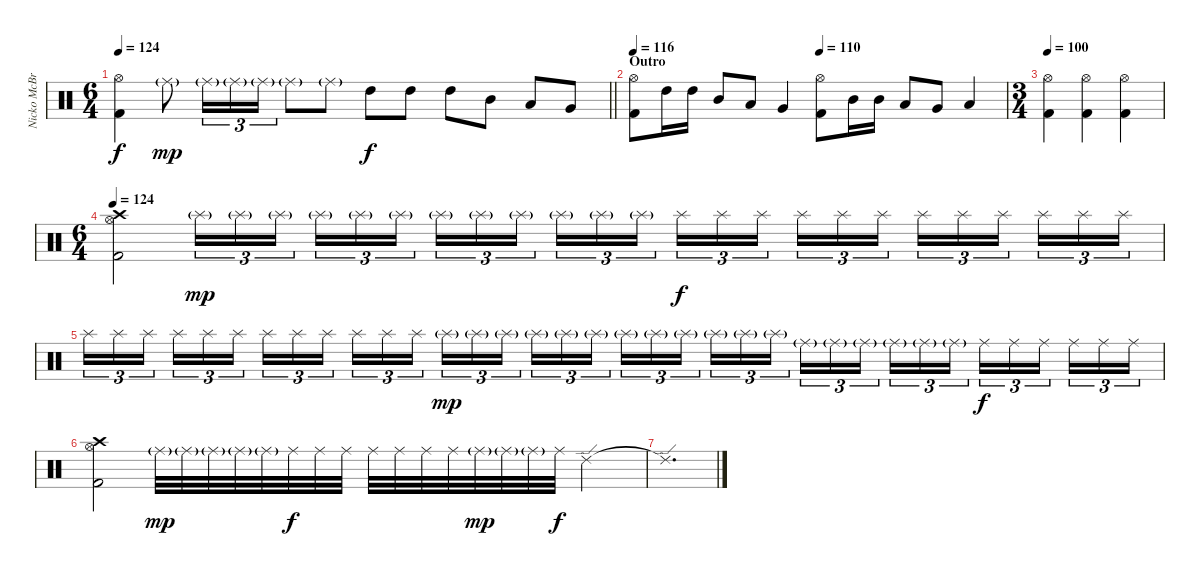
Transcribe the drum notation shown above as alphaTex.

\track ("Nicko McBrain" "Nicko McBr") {instrument percussion}
\staff {score}
\articulation defaults
\ts (6 4)
\tempo 124
\clef neutral
\barLineRight lightlight
\ks c
("Kick (hit) 2" "Hi-Hat (open)").4{dy f} "Ride (middle)"{g}.8{dy mp} "Ride (middle)"{g}.16{tu (3 2)} "Ride (middle)"{g}.16{tu (3 2)} "Ride (middle)"{g}.16{tu (3 2)} "Ride (middle)"{g}.8 "Ride (middle)"{g}.8 "High Tom (hit)".8{dy f} "High Tom (hit)".8 "High Tom (hit)".8 "Mid Tom (hit)".8 "Low Tom (hit)".8 "Very Low Tom (hit)".8 |
\section ("" "Outro")
\tempo 116
\tempo (110 0.5)
("Kick (hit) 2" "Hi-Hat (open)").8 "High Tom (hit)".16 "High Tom (hit)".16 "Mid Tom (hit)".8 "Low Tom (hit)".8 "Very Low Tom (hit)".4 ("Kick (hit) 2" "Hi-Hat (open)").8 "Mid Tom (hit)".16 "Mid Tom (hit)".16 "Low Tom (hit)".8 "Very Low Tom (hit)".8 "Low Floor Tom (hit)".4 |
\ts (3 4)
\tempo 100
("Kick (hit) 2" "Hi-Hat (open)").4 ("Kick (hit) 2" "Hi-Hat (open)").4 ("Kick (hit) 2" "Hi-Hat (open)").4 |
\ts (6 4)
\tempo 124
("Kick (hit) 2" "Hi-Hat (open)" "Crash high (hit)").2 "Splash (hit)"{g}.16{tu (3 2) dy mp} "Splash (hit)"{g}.16{tu (3 2)} "Splash (hit)"{g}.16{tu (3 2) beam splitsecondary} "Splash (hit)"{g}.16{tu (3 2)} "Splash (hit)"{g}.16{tu (3 2)} "Splash (hit)"{g}.16{tu (3 2)} "Splash (hit)"{g}.16{tu (3 2)} "Splash (hit)"{g}.16{tu (3 2)} "Splash (hit)"{g}.16{tu (3 2) beam splitsecondary} "Splash (hit)"{g}.16{tu (3 2)} "Splash (hit)"{g}.16{tu (3 2)} "Splash (hit)"{g}.16{tu (3 2) beam splitsecondary} "Splash (hit)".16{tu (3 2) dy f} "Splash (hit)".16{tu (3 2)} "Splash (hit)".16{tu (3 2) beam splitsecondary} "Splash (hit)".16{tu (3 2)} "Splash (hit)".16{tu (3 2)} "Splash (hit)".16{tu (3 2) beam splitsecondary} "Splash (hit)".16{tu (3 2)} "Splash (hit)".16{tu (3 2)} "Splash (hit)".16{tu (3 2) beam splitsecondary} "Splash (hit)".16{tu (3 2)} "Splash (hit)".16{tu (3 2)} "Splash (hit)".16{tu (3 2)} |
"Splash (hit)".16{tu (3 2)} "Splash (hit)".16{tu (3 2)} "Splash (hit)".16{tu (3 2) beam splitsecondary} "Splash (hit)".16{tu (3 2)} "Splash (hit)".16{tu (3 2)} "Splash (hit)".16{tu (3 2) beam splitsecondary} "Splash (hit)".16{tu (3 2)} "Splash (hit)".16{tu (3 2)} "Splash (hit)".16{tu (3 2) beam splitsecondary} "Splash (hit)".16{tu (3 2)} "Splash (hit)".16{tu (3 2)} "Splash (hit)".16{tu (3 2) beam splitsecondary} "Splash (hit)"{g}.16{tu (3 2) dy mp} "Splash (hit)"{g}.16{tu (3 2)} "Splash (hit)"{g}.16{tu (3 2) beam splitsecondary} "Splash (hit)"{g}.16{tu (3 2)} "Splash (hit)"{g}.16{tu (3 2)} "Splash (hit)"{g}.16{tu (3 2)} "Splash (hit)"{g}.16{tu (3 2)} "Splash (hit)"{g}.16{tu (3 2)} "Splash (hit)"{g}.16{tu (3 2) beam splitsecondary} "Splash (hit)"{g}.16{tu (3 2)} "Splash (hit)"{g}.16{tu (3 2)} "Splash (hit)"{g}.16{tu (3 2) beam splitsecondary} "Ride (middle)"{g}.16{tu (3 2)} "Ride (middle)"{g}.16{tu (3 2)} "Ride (middle)"{g}.16{tu (3 2) beam splitsecondary} "Ride (middle)"{g}.16{tu (3 2)} "Ride (middle)"{g}.16{tu (3 2)} "Ride (middle)"{g}.16{tu (3 2) beam splitsecondary} "Ride (middle)".16{tu (3 2) dy f} "Ride (middle)".16{tu (3 2)} "Ride (middle)".16{tu (3 2) beam splitsecondary} "Ride (middle)".16{tu (3 2)} "Ride (middle)".16{tu (3 2)} "Ride (middle)".16{tu (3 2)} |
("Kick (hit) 2" "Hi-Hat (open)" "Crash high (hit)").2 "Ride (middle)"{g}.32{dy mp} "Ride (middle)"{g}.32 "Ride (middle)"{g}.32 "Ride (middle)"{g}.32 "Ride (middle)"{g}.32 "Ride (middle)".32{dy f} "Ride (middle)".32 "Ride (middle)".32 "Ride (middle)".32 "Ride (middle)".32 "Ride (middle)".32 "Ride (middle)".32 "Ride (middle)"{g}.32{dy mp} "Ride (middle)"{g}.32 "Ride (middle)"{g}.32 "Ride (middle)".32{dy f} "Ride (edge) 2".2{volume 0} |
"Ride (edge) 2"{t}.1{d}
